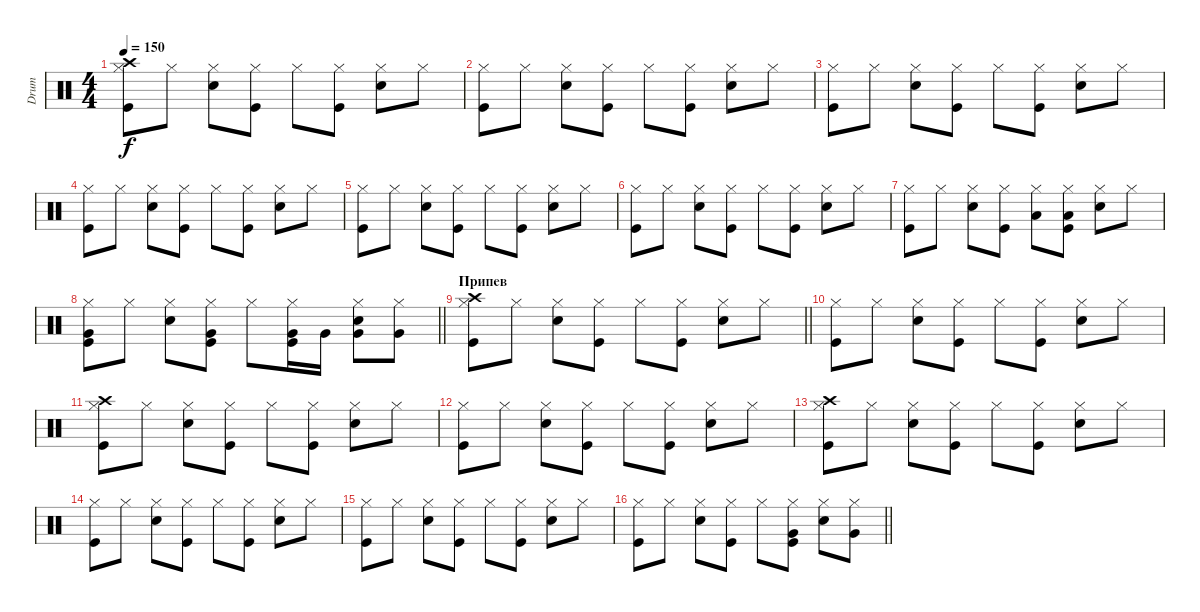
\track ("Drum" "Drum") {instrument percussion}
\staff {score}
\articulation defaults
\ts (4 4)
\tempo 150
\clef neutral
\ks c
("Kick (hit)" "Hi-Hat (closed)" "Crash high (hit)").8{dy f} "Hi-Hat (closed)".8 ("Snare (hit) 2" "Hi-Hat (closed)").8 ("Kick (hit)" "Hi-Hat (closed)").8 "Hi-Hat (closed)".8 ("Kick (hit)" "Hi-Hat (closed)").8 ("Snare (hit) 2" "Hi-Hat (closed)").8 "Hi-Hat (closed)".8 |
("Kick (hit)" "Hi-Hat (closed)").8 "Hi-Hat (closed)".8 ("Snare (hit) 2" "Hi-Hat (closed)").8 ("Kick (hit)" "Hi-Hat (closed)").8 "Hi-Hat (closed)".8 ("Kick (hit)" "Hi-Hat (closed)").8 ("Snare (hit) 2" "Hi-Hat (closed)").8 "Hi-Hat (closed)".8 |
("Kick (hit)" "Hi-Hat (closed)").8 "Hi-Hat (closed)".8 ("Snare (hit) 2" "Hi-Hat (closed)").8 ("Kick (hit)" "Hi-Hat (closed)").8 "Hi-Hat (closed)".8 ("Kick (hit)" "Hi-Hat (closed)").8 ("Snare (hit) 2" "Hi-Hat (closed)").8 "Hi-Hat (closed)".8 |
("Kick (hit)" "Hi-Hat (closed)").8 "Hi-Hat (closed)".8 ("Snare (hit) 2" "Hi-Hat (closed)").8 ("Kick (hit)" "Hi-Hat (closed)").8 "Hi-Hat (closed)".8 ("Kick (hit)" "Hi-Hat (closed)").8 ("Snare (hit) 2" "Hi-Hat (closed)").8 "Hi-Hat (closed)".8 |
("Kick (hit)" "Hi-Hat (closed)").8 "Hi-Hat (closed)".8 ("Snare (hit) 2" "Hi-Hat (closed)").8 ("Kick (hit)" "Hi-Hat (closed)").8 "Hi-Hat (closed)".8 ("Kick (hit)" "Hi-Hat (closed)").8 ("Snare (hit) 2" "Hi-Hat (closed)").8 "Hi-Hat (closed)".8 |
("Kick (hit)" "Hi-Hat (closed)").8 "Hi-Hat (closed)".8 ("Snare (hit) 2" "Hi-Hat (closed)").8 ("Kick (hit)" "Hi-Hat (closed)").8 "Hi-Hat (closed)".8 ("Kick (hit)" "Hi-Hat (closed)").8 ("Snare (hit) 2" "Hi-Hat (closed)").8 "Hi-Hat (closed)".8 |
("Kick (hit)" "Hi-Hat (closed)").8 "Hi-Hat (closed)".8 ("Snare (hit) 2" "Hi-Hat (closed)").8 ("Kick (hit)" "Hi-Hat (closed)").8 ("Hi-Hat (closed)" "Low Tom (hit)").8 ("Kick (hit)" "Hi-Hat (closed)" "Low Tom (hit)").8 ("Snare (hit) 2" "Hi-Hat (closed)").8 "Hi-Hat (closed)".8 |
\barLineRight lightlight
("Kick (hit)" "Hi-Hat (closed)" "Very Low Tom (hit)").8 "Hi-Hat (closed)".8 ("Snare (hit) 2" "Hi-Hat (closed)").8 ("Kick (hit)" "Hi-Hat (closed)" "Very Low Tom (hit)").8 "Hi-Hat (closed)".8 ("Kick (hit)" "Hi-Hat (closed)" "Very Low Tom (hit)").16 "Very Low Tom (hit)".16 ("Snare (hit) 2" "Hi-Hat (closed)" "Very Low Tom (hit)").8 ("Hi-Hat (closed)" "Very Low Tom (hit)").8 |
\section ("" "Припев")
\barLineRight lightlight
("Kick (hit)" "Hi-Hat (closed)" "Crash high (hit)").8 "Hi-Hat (closed)".8 ("Snare (hit) 2" "Hi-Hat (closed)").8 ("Kick (hit)" "Hi-Hat (closed)").8 "Hi-Hat (closed)".8 ("Kick (hit)" "Hi-Hat (closed)").8 ("Snare (hit) 2" "Hi-Hat (closed)").8 "Hi-Hat (closed)".8 |
("Kick (hit)" "Hi-Hat (closed)").8 "Hi-Hat (closed)".8 ("Snare (hit) 2" "Hi-Hat (closed)").8 ("Kick (hit)" "Hi-Hat (closed)").8 "Hi-Hat (closed)".8 ("Kick (hit)" "Hi-Hat (closed)").8 ("Snare (hit) 2" "Hi-Hat (closed)").8 "Hi-Hat (closed)".8 |
("Kick (hit)" "Hi-Hat (closed)" "Crash high (hit)").8 "Hi-Hat (closed)".8 ("Snare (hit) 2" "Hi-Hat (closed)").8 ("Kick (hit)" "Hi-Hat (closed)").8 "Hi-Hat (closed)".8 ("Kick (hit)" "Hi-Hat (closed)").8 ("Snare (hit) 2" "Hi-Hat (closed)").8 "Hi-Hat (closed)".8 |
("Kick (hit)" "Hi-Hat (closed)").8 "Hi-Hat (closed)".8 ("Snare (hit) 2" "Hi-Hat (closed)").8 ("Kick (hit)" "Hi-Hat (closed)").8 "Hi-Hat (closed)".8 ("Kick (hit)" "Hi-Hat (closed)").8 ("Snare (hit) 2" "Hi-Hat (closed)").8 "Hi-Hat (closed)".8 |
("Kick (hit)" "Hi-Hat (closed)" "Crash high (hit)").8 "Hi-Hat (closed)".8 ("Snare (hit) 2" "Hi-Hat (closed)").8 ("Kick (hit)" "Hi-Hat (closed)").8 "Hi-Hat (closed)".8 ("Kick (hit)" "Hi-Hat (closed)").8 ("Snare (hit) 2" "Hi-Hat (closed)").8 "Hi-Hat (closed)".8 |
("Kick (hit)" "Hi-Hat (closed)").8 "Hi-Hat (closed)".8 ("Snare (hit) 2" "Hi-Hat (closed)").8 ("Kick (hit)" "Hi-Hat (closed)").8 "Hi-Hat (closed)".8 ("Kick (hit)" "Hi-Hat (closed)").8 ("Snare (hit) 2" "Hi-Hat (closed)").8 "Hi-Hat (closed)".8 |
("Kick (hit)" "Hi-Hat (closed)").8 "Hi-Hat (closed)".8 ("Snare (hit) 2" "Hi-Hat (closed)").8 ("Kick (hit)" "Hi-Hat (closed)").8 "Hi-Hat (closed)".8 ("Kick (hit)" "Hi-Hat (closed)").8 ("Snare (hit) 2" "Hi-Hat (closed)").8 "Hi-Hat (closed)".8 |
\barLineRight lightlight
("Kick (hit)" "Hi-Hat (closed)").8 "Hi-Hat (closed)".8 ("Snare (hit) 2" "Hi-Hat (closed)").8 ("Kick (hit)" "Hi-Hat (closed)").8 "Hi-Hat (closed)".8 ("Kick (hit)" "Hi-Hat (closed)" "Very Low Tom (hit)").8 ("Snare (hit) 2" "Hi-Hat (closed)").8 ("Hi-Hat (closed)" "Very Low Tom (hit)").8
